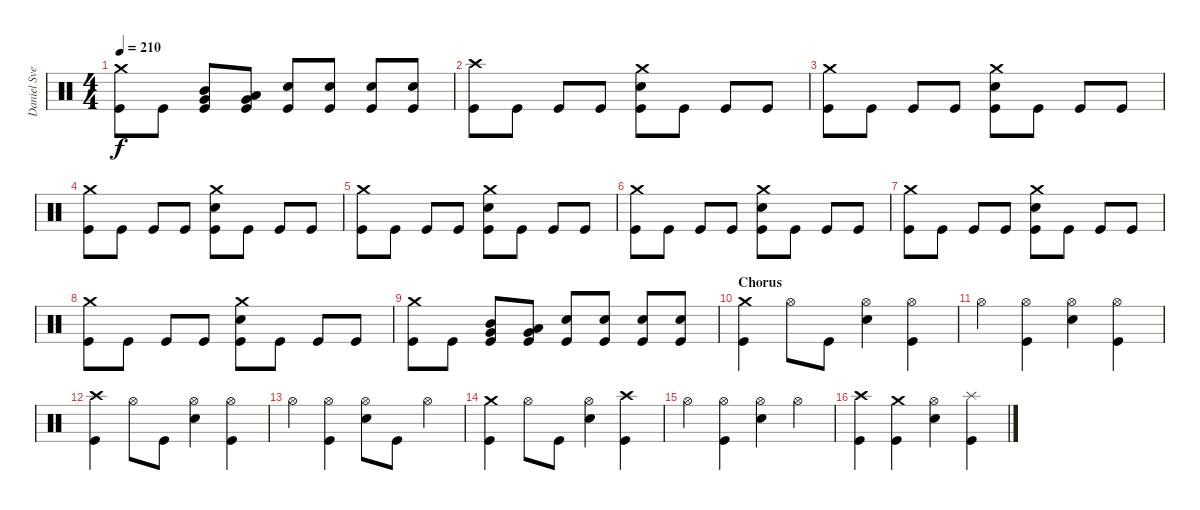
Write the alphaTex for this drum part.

\track ("Daniel Svensson" "Daniel Sve") {instrument percussion}
\staff {score}
\articulation defaults
\ts (4 4)
\tempo 210
\clef neutral
\ks c
("Crash medium (hit)" "Kick (hit)").8{dy f} "Kick (hit)".8 ("Very Low Tom (hit)" "Mid Tom (hit)" "Kick (hit)").8 ("Very Low Tom (hit)" "Low Tom (hit)" "Kick (hit)").8 ("Electric Snare (hit)" "Kick (hit)").8 ("Electric Snare (hit)" "Kick (hit)").8 ("Electric Snare (hit)" "Kick (hit)").8 ("Electric Snare (hit)" "Kick (hit)").8 |
("Crash high (hit)" "Kick (hit)").8 "Kick (hit)".8 "Kick (hit)".8 "Kick (hit)".8 ("Crash medium (hit)" "Electric Snare (hit)" "Kick (hit)").8 "Kick (hit)".8 "Kick (hit)".8 "Kick (hit)".8 |
("Crash medium (hit)" "Kick (hit)").8 "Kick (hit)".8 "Kick (hit)".8 "Kick (hit)".8 ("Crash medium (hit)" "Electric Snare (hit)" "Kick (hit)").8 "Kick (hit)".8 "Kick (hit)".8 "Kick (hit)".8 |
("Crash medium (hit)" "Kick (hit)").8 "Kick (hit)".8 "Kick (hit)".8 "Kick (hit)".8 ("Crash medium (hit)" "Electric Snare (hit)" "Kick (hit)").8 "Kick (hit)".8 "Kick (hit)".8 "Kick (hit)".8 |
("Crash medium (hit)" "Kick (hit)").8 "Kick (hit)".8 "Kick (hit)".8 "Kick (hit)".8 ("Crash medium (hit)" "Electric Snare (hit)" "Kick (hit)").8 "Kick (hit)".8 "Kick (hit)".8 "Kick (hit)".8 |
("Crash medium (hit)" "Kick (hit)").8 "Kick (hit)".8 "Kick (hit)".8 "Kick (hit)".8 ("Crash medium (hit)" "Electric Snare (hit)" "Kick (hit)").8 "Kick (hit)".8 "Kick (hit)".8 "Kick (hit)".8 |
("Crash medium (hit)" "Kick (hit)").8 "Kick (hit)".8 "Kick (hit)".8 "Kick (hit)".8 ("Crash medium (hit)" "Electric Snare (hit)" "Kick (hit)").8 "Kick (hit)".8 "Kick (hit)".8 "Kick (hit)".8 |
("Crash medium (hit)" "Kick (hit)").8 "Kick (hit)".8 "Kick (hit)".8 "Kick (hit)".8 ("Crash medium (hit)" "Electric Snare (hit)" "Kick (hit)").8 "Kick (hit)".8 "Kick (hit)".8 "Kick (hit)".8 |
("Crash medium (hit)" "Kick (hit)").8 "Kick (hit)".8 ("Very Low Tom (hit)" "Mid Tom (hit)" "Kick (hit)").8 ("Very Low Tom (hit)" "Low Tom (hit)" "Kick (hit)").8 ("Electric Snare (hit)" "Kick (hit)").8 ("Electric Snare (hit)" "Kick (hit)").8 ("Electric Snare (hit)" "Kick (hit)").8 ("Electric Snare (hit)" "Kick (hit)").8 |
\section ("" "Chorus")
("Crash medium (hit)" "Kick (hit)").4 "Hi-Hat (open)".8 "Kick (hit)".8 ("Hi-Hat (open)" "Electric Snare (hit)").4 ("Hi-Hat (open)" "Kick (hit)").4 |
"Hi-Hat (open)".4 ("Hi-Hat (open)" "Kick (hit)").4 ("Hi-Hat (open)" "Electric Snare (hit)").4 ("Hi-Hat (open)" "Kick (hit)").4 |
("Crash high (hit)" "Kick (hit)").4 "Hi-Hat (open)".8 "Kick (hit)".8 ("Hi-Hat (open)" "Electric Snare (hit)").4 ("Hi-Hat (open)" "Kick (hit)").4 |
"Hi-Hat (open)".4 ("Hi-Hat (open)" "Kick (hit)").4 ("Hi-Hat (open)" "Electric Snare (hit)").8 "Kick (hit)".8 "Hi-Hat (open)".4 |
("Crash medium (hit)" "Kick (hit)").4 "Hi-Hat (open)".8 "Kick (hit)".8 ("Hi-Hat (open)" "Electric Snare (hit)").4 ("Crash high (hit)" "Kick (hit)").4 |
"Hi-Hat (open)".4 ("Hi-Hat (open)" "Kick (hit)").4 ("Hi-Hat (open)" "Electric Snare (hit)").4 "Hi-Hat (open)".4 |
("Crash high (hit)" "Kick (hit)").4 ("Crash medium (hit)" "Kick (hit)").4 ("Hi-Hat (open)" "Electric Snare (hit)").4 ("Splash (hit)" "Kick (hit)").4
